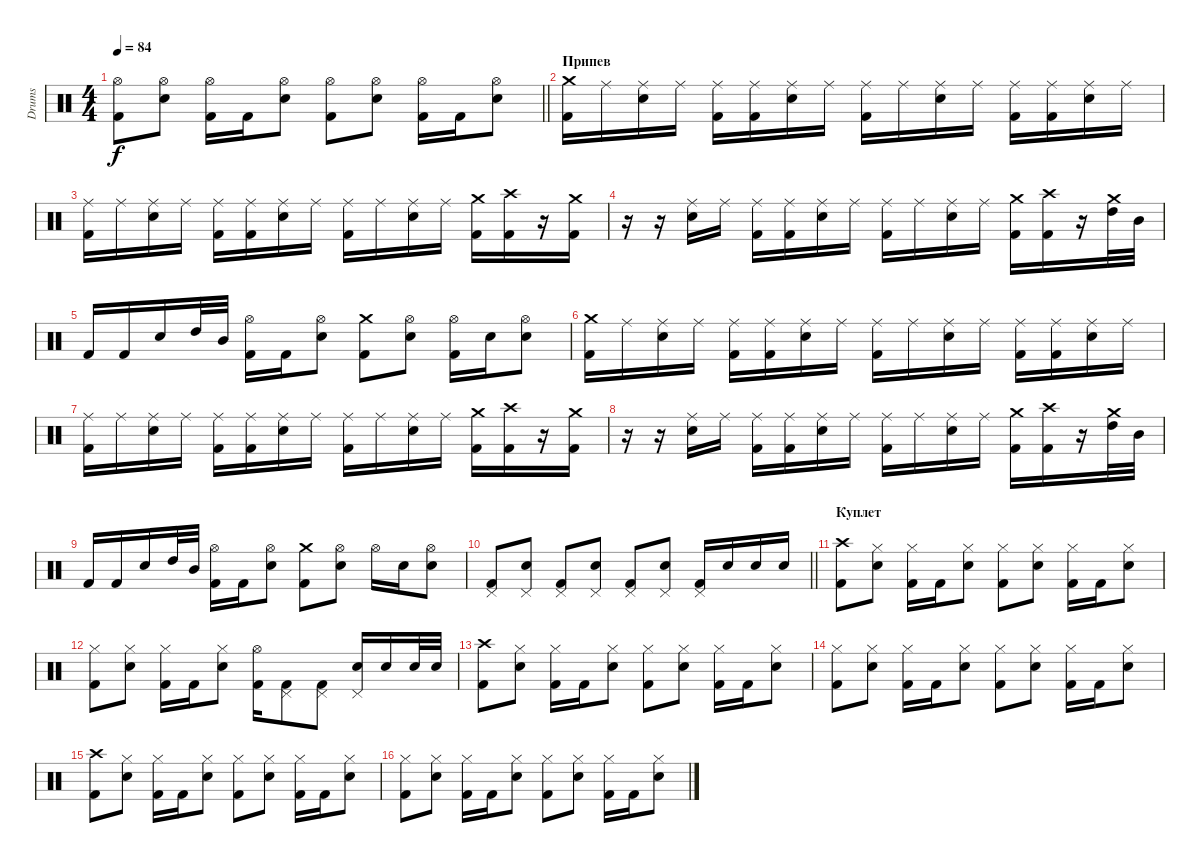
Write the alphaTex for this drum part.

\track ("Drums" "Drums") {instrument percussion}
\staff {score}
\articulation defaults
\ts (4 4)
\tempo 84
\clef neutral
\barLineRight lightlight
\ks c
("Hi-Hat (open)" "Kick (hit) 2").8{dy f} ("Hi-Hat (open)" "Snare (hit) 2").8 ("Hi-Hat (open)" "Kick (hit) 2").16 "Kick (hit) 2".16 ("Hi-Hat (open)" "Snare (hit) 2").8 ("Hi-Hat (open)" "Kick (hit) 2").8 ("Hi-Hat (open)" "Snare (hit) 2").8 ("Hi-Hat (open)" "Kick (hit) 2").16 "Kick (hit) 2".16 ("Hi-Hat (open)" "Snare (hit) 2").8 |
\section ("" "Припев")
("Crash medium (hit)" "Kick (hit) 2").16 "Ride (middle)".16 ("Ride (middle)" "Snare (hit) 2").16 "Ride (middle)".16 ("Ride (middle)" "Kick (hit) 2").16 ("Ride (middle)" "Kick (hit) 2").16 ("Ride (middle)" "Snare (hit) 2").16 "Ride (middle)".16 ("Ride (middle)" "Kick (hit) 2").16 "Ride (middle)".16 ("Ride (middle)" "Snare (hit) 2").16 "Ride (middle)".16 ("Ride (middle)" "Kick (hit) 2").16 ("Ride (middle)" "Kick (hit) 2").16 ("Ride (middle)" "Snare (hit) 2").16 "Ride (middle)".16 |
("Ride (middle)" "Kick (hit) 2").16 "Ride (middle)".16 ("Ride (middle)" "Snare (hit) 2").16 "Ride (middle)".16 ("Ride (middle)" "Kick (hit) 2").16 ("Ride (middle)" "Kick (hit) 2").16 ("Ride (middle)" "Snare (hit) 2").16 "Ride (middle)".16 ("Ride (middle)" "Kick (hit) 2").16 "Ride (middle)".16 ("Ride (middle)" "Snare (hit) 2").16 "Ride (middle)".16 ("Crash medium (hit)" "Kick (hit) 2").16 ("Crash high (hit)" "Kick (hit) 2").16 r.16 ("Crash medium (hit)" "Kick (hit) 2").16 |
r.16 r.16 ("Ride (middle)" "Snare (hit) 2").16 "Ride (middle)".16 ("Ride (middle)" "Kick (hit) 2").16 ("Ride (middle)" "Kick (hit) 2").16 ("Ride (middle)" "Snare (hit) 2").16 "Ride (middle)".16 ("Ride (middle)" "Kick (hit) 2").16 "Ride (middle)".16 ("Ride (middle)" "Snare (hit) 2").16 "Ride (middle)".16 ("Crash medium (hit)" "Kick (hit) 2").16 ("Crash high (hit)" "Kick (hit) 2").16 r.16 ("Crash medium (hit)" "High Tom (hit)").32 "Mid Tom (hit)".32 |
"Kick (hit) 2".16 "Kick (hit) 2".16 "Snare (hit) 2".16 "High Tom (hit)".32 "Mid Tom (hit)".32 ("Hi-Hat (open)" "Kick (hit) 2").16 "Kick (hit) 2".16 ("Hi-Hat (open)" "Snare (hit) 2").8 ("Crash medium (hit)" "Kick (hit) 2").8 ("Hi-Hat (open)" "Snare (hit) 2").8 ("Hi-Hat (open)" "Kick (hit) 2").16 "Snare (hit) 2".16 ("Hi-Hat (open)" "Snare (hit) 2").8 |
("Crash medium (hit)" "Kick (hit) 2").16 "Ride (middle)".16 ("Ride (middle)" "Snare (hit) 2").16 "Ride (middle)".16 ("Ride (middle)" "Kick (hit) 2").16 ("Ride (middle)" "Kick (hit) 2").16 ("Ride (middle)" "Snare (hit) 2").16 "Ride (middle)".16 ("Ride (middle)" "Kick (hit) 2").16 "Ride (middle)".16 ("Ride (middle)" "Snare (hit) 2").16 "Ride (middle)".16 ("Ride (middle)" "Kick (hit) 2").16 ("Ride (middle)" "Kick (hit) 2").16 ("Ride (middle)" "Snare (hit) 2").16 "Ride (middle)".16 |
("Ride (middle)" "Kick (hit) 2").16 "Ride (middle)".16 ("Ride (middle)" "Snare (hit) 2").16 "Ride (middle)".16 ("Ride (middle)" "Kick (hit) 2").16 ("Ride (middle)" "Kick (hit) 2").16 ("Ride (middle)" "Snare (hit) 2").16 "Ride (middle)".16 ("Ride (middle)" "Kick (hit) 2").16 "Ride (middle)".16 ("Ride (middle)" "Snare (hit) 2").16 "Ride (middle)".16 ("Crash medium (hit)" "Kick (hit) 2").16 ("Crash high (hit)" "Kick (hit) 2").16 r.16 ("Crash medium (hit)" "Kick (hit) 2").16 |
r.16 r.16 ("Ride (middle)" "Snare (hit) 2").16 "Ride (middle)".16 ("Ride (middle)" "Kick (hit) 2").16 ("Ride (middle)" "Kick (hit) 2").16 ("Ride (middle)" "Snare (hit) 2").16 "Ride (middle)".16 ("Ride (middle)" "Kick (hit) 2").16 "Ride (middle)".16 ("Ride (middle)" "Snare (hit) 2").16 "Ride (middle)".16 ("Crash medium (hit)" "Kick (hit) 2").16 ("Crash high (hit)" "Kick (hit) 2").16 r.16 ("Crash medium (hit)" "High Tom (hit)").32 "Mid Tom (hit)".32 |
"Kick (hit) 2".16 "Kick (hit) 2".16 "Snare (hit) 2".16 "High Tom (hit)".32 "Mid Tom (hit)".32 ("Hi-Hat (open)" "Kick (hit) 2").16 "Kick (hit) 2".16 ("Hi-Hat (open)" "Snare (hit) 2").8 ("Crash medium (hit)" "Kick (hit) 2").8 ("Hi-Hat (open)" "Snare (hit) 2").8 "Hi-Hat (open)".16 "Snare (hit) 2".16 ("Hi-Hat (open)" "Snare (hit) 2").8 |
\barLineRight lightlight
("Pedal Hi-Hat (hit)" "Kick (hit) 2").8 ("Pedal Hi-Hat (hit)" "Snare (hit) 2").8 ("Pedal Hi-Hat (hit)" "Kick (hit) 2").8 ("Pedal Hi-Hat (hit)" "Snare (hit) 2").8 ("Pedal Hi-Hat (hit)" "Kick (hit) 2").8 ("Pedal Hi-Hat (hit)" "Snare (hit) 2").8 ("Pedal Hi-Hat (hit)" "Kick (hit) 2").16 "Snare (hit) 2".16 "Snare (hit) 2".16 "Snare (hit) 2".16 |
\section ("" "Куплет")
("Crash high (hit)" "Kick (hit) 2").8 ("Hi-Hat (closed)" "Snare (hit) 2").8 ("Hi-Hat (closed)" "Kick (hit) 2").16 "Kick (hit) 2".16 ("Hi-Hat (closed)" "Snare (hit) 2").8 ("Hi-Hat (closed)" "Kick (hit) 2").8 ("Hi-Hat (closed)" "Snare (hit) 2").8 ("Hi-Hat (closed)" "Kick (hit) 2").16 "Kick (hit) 2".16 ("Hi-Hat (closed)" "Snare (hit) 2").8 |
("Hi-Hat (closed)" "Kick (hit) 2").8 ("Hi-Hat (closed)" "Snare (hit) 2").8 ("Hi-Hat (closed)" "Kick (hit) 2").16 "Kick (hit) 2".16 ("Hi-Hat (closed)" "Snare (hit) 2").8 ("Hi-Hat (open)" "Kick (hit) 2").16 ("Pedal Hi-Hat (hit)" "Kick (hit) 2").8 ("Pedal Hi-Hat (hit)" "Kick (hit) 2").8 ("Pedal Hi-Hat (hit)" "Snare (hit) 2").16 "Snare (hit) 2".16 "Snare (hit) 2".32 "Snare (hit) 2".32 |
("Crash high (hit)" "Kick (hit) 2").8 ("Hi-Hat (closed)" "Snare (hit) 2").8 ("Hi-Hat (closed)" "Kick (hit) 2").16 "Kick (hit) 2".16 ("Hi-Hat (closed)" "Snare (hit) 2").8 ("Hi-Hat (closed)" "Kick (hit) 2").8 ("Hi-Hat (closed)" "Snare (hit) 2").8 ("Hi-Hat (closed)" "Kick (hit) 2").16 "Kick (hit) 2".16 ("Hi-Hat (closed)" "Snare (hit) 2").8 |
("Hi-Hat (closed)" "Kick (hit) 2").8 ("Hi-Hat (closed)" "Snare (hit) 2").8 ("Hi-Hat (closed)" "Kick (hit) 2").16 "Kick (hit) 2".16 ("Hi-Hat (closed)" "Snare (hit) 2").8 ("Hi-Hat (closed)" "Kick (hit) 2").8 ("Hi-Hat (closed)" "Snare (hit) 2").8 ("Hi-Hat (closed)" "Kick (hit) 2").16 "Kick (hit) 2".16 ("Hi-Hat (closed)" "Snare (hit) 2").8 |
("Crash high (hit)" "Kick (hit) 2").8 ("Hi-Hat (closed)" "Snare (hit) 2").8 ("Hi-Hat (closed)" "Kick (hit) 2").16 "Kick (hit) 2".16 ("Hi-Hat (closed)" "Snare (hit) 2").8 ("Hi-Hat (closed)" "Kick (hit) 2").8 ("Hi-Hat (closed)" "Snare (hit) 2").8 ("Hi-Hat (closed)" "Kick (hit) 2").16 "Kick (hit) 2".16 ("Hi-Hat (closed)" "Snare (hit) 2").8 |
("Hi-Hat (closed)" "Kick (hit) 2").8 ("Hi-Hat (closed)" "Snare (hit) 2").8 ("Hi-Hat (closed)" "Kick (hit) 2").16 "Kick (hit) 2".16 ("Hi-Hat (closed)" "Snare (hit) 2").8 ("Hi-Hat (closed)" "Kick (hit) 2").8 ("Hi-Hat (closed)" "Snare (hit) 2").8 ("Hi-Hat (closed)" "Kick (hit) 2").16 "Kick (hit) 2".16 ("Hi-Hat (closed)" "Snare (hit) 2").8
